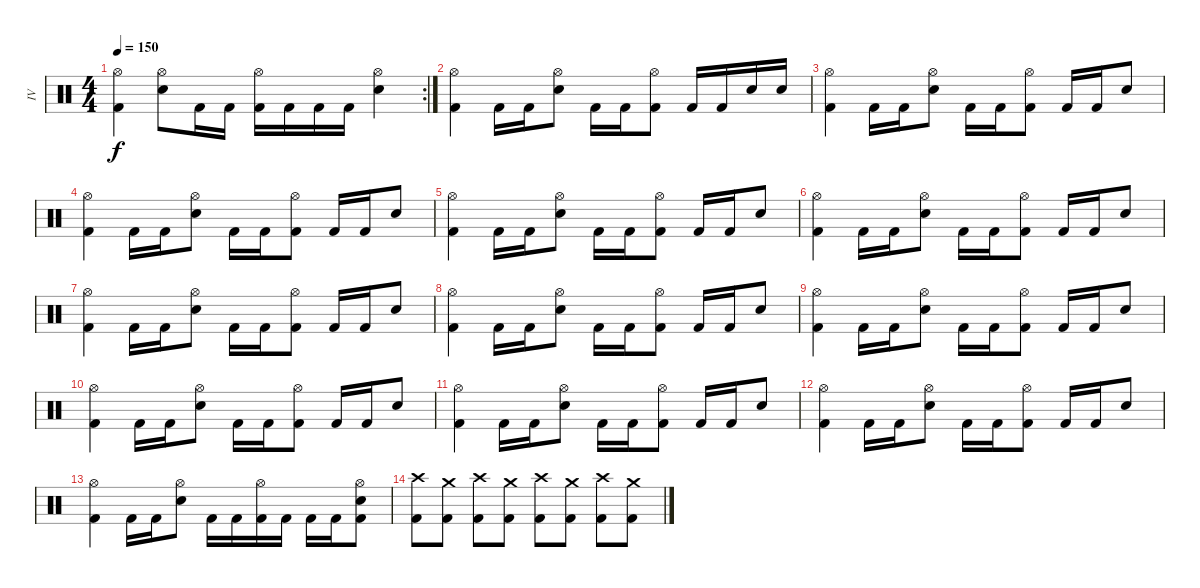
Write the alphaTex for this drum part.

\track ("IV" "IV") {instrument percussion}
\staff {score}
\articulation defaults
\rc 2
\ts (4 4)
\tempo 150
\clef neutral
\ks c
("Hi-Hat (open)" "Kick (hit) 2").4{dy f} ("Hi-Hat (open)" "Snare (hit) 2").8 "Kick (hit) 2".16 "Kick (hit) 2".16 ("Hi-Hat (open)" "Kick (hit) 2").16 "Kick (hit) 2".16 "Kick (hit) 2".16 "Kick (hit) 2".16 ("Hi-Hat (open)" "Snare (hit) 2").4 |
("Hi-Hat (open)" "Kick (hit) 2").4 "Kick (hit) 2".16 "Kick (hit) 2".16 ("Hi-Hat (open)" "Snare (hit) 2").8 "Kick (hit) 2".16 "Kick (hit) 2".16 ("Hi-Hat (open)" "Kick (hit) 2").8 "Kick (hit) 2".16 "Kick (hit) 2".16 "Snare (hit) 2".16 "Snare (hit) 2".16 |
("Hi-Hat (open)" "Kick (hit) 2").4 "Kick (hit) 2".16 "Kick (hit) 2".16 ("Hi-Hat (open)" "Snare (hit) 2").8 "Kick (hit) 2".16 "Kick (hit) 2".16 ("Hi-Hat (open)" "Kick (hit) 2").8 "Kick (hit) 2".16 "Kick (hit) 2".16 "Snare (hit) 2".8 |
("Hi-Hat (open)" "Kick (hit) 2").4 "Kick (hit) 2".16 "Kick (hit) 2".16 ("Hi-Hat (open)" "Snare (hit) 2").8 "Kick (hit) 2".16 "Kick (hit) 2".16 ("Hi-Hat (open)" "Kick (hit) 2").8 "Kick (hit) 2".16 "Kick (hit) 2".16 "Snare (hit) 2".8 |
("Hi-Hat (open)" "Kick (hit) 2").4 "Kick (hit) 2".16 "Kick (hit) 2".16 ("Hi-Hat (open)" "Snare (hit) 2").8 "Kick (hit) 2".16 "Kick (hit) 2".16 ("Hi-Hat (open)" "Kick (hit) 2").8 "Kick (hit) 2".16 "Kick (hit) 2".16 "Snare (hit) 2".8 |
("Hi-Hat (open)" "Kick (hit) 2").4 "Kick (hit) 2".16 "Kick (hit) 2".16 ("Hi-Hat (open)" "Snare (hit) 2").8 "Kick (hit) 2".16 "Kick (hit) 2".16 ("Hi-Hat (open)" "Kick (hit) 2").8 "Kick (hit) 2".16 "Kick (hit) 2".16 "Snare (hit) 2".8 |
("Hi-Hat (open)" "Kick (hit) 2").4 "Kick (hit) 2".16 "Kick (hit) 2".16 ("Hi-Hat (open)" "Snare (hit) 2").8 "Kick (hit) 2".16 "Kick (hit) 2".16 ("Hi-Hat (open)" "Kick (hit) 2").8 "Kick (hit) 2".16 "Kick (hit) 2".16 "Snare (hit) 2".8 |
("Hi-Hat (open)" "Kick (hit) 2").4 "Kick (hit) 2".16 "Kick (hit) 2".16 ("Hi-Hat (open)" "Snare (hit) 2").8 "Kick (hit) 2".16 "Kick (hit) 2".16 ("Hi-Hat (open)" "Kick (hit) 2").8 "Kick (hit) 2".16 "Kick (hit) 2".16 "Snare (hit) 2".8 |
("Hi-Hat (open)" "Kick (hit) 2").4 "Kick (hit) 2".16 "Kick (hit) 2".16 ("Hi-Hat (open)" "Snare (hit) 2").8 "Kick (hit) 2".16 "Kick (hit) 2".16 ("Hi-Hat (open)" "Kick (hit) 2").8 "Kick (hit) 2".16 "Kick (hit) 2".16 "Snare (hit) 2".8 |
("Hi-Hat (open)" "Kick (hit) 2").4 "Kick (hit) 2".16 "Kick (hit) 2".16 ("Hi-Hat (open)" "Snare (hit) 2").8 "Kick (hit) 2".16 "Kick (hit) 2".16 ("Hi-Hat (open)" "Kick (hit) 2").8 "Kick (hit) 2".16 "Kick (hit) 2".16 "Snare (hit) 2".8 |
("Hi-Hat (open)" "Kick (hit) 2").4 "Kick (hit) 2".16 "Kick (hit) 2".16 ("Hi-Hat (open)" "Snare (hit) 2").8 "Kick (hit) 2".16 "Kick (hit) 2".16 ("Hi-Hat (open)" "Kick (hit) 2").8 "Kick (hit) 2".16 "Kick (hit) 2".16 "Snare (hit) 2".8 |
("Hi-Hat (open)" "Kick (hit) 2").4 "Kick (hit) 2".16 "Kick (hit) 2".16 ("Hi-Hat (open)" "Snare (hit) 2").8 "Kick (hit) 2".16 "Kick (hit) 2".16 ("Hi-Hat (open)" "Kick (hit) 2").8 "Kick (hit) 2".16 "Kick (hit) 2".16 "Snare (hit) 2".8 |
("Hi-Hat (open)" "Kick (hit) 2").4 "Kick (hit) 2".16 "Kick (hit) 2".16 ("Hi-Hat (open)" "Snare (hit) 2").8 "Kick (hit) 2".16 "Kick (hit) 2".16 ("Hi-Hat (open)" "Kick (hit) 2").16 "Kick (hit) 2".16 "Kick (hit) 2".16 "Kick (hit) 2".16 ("Hi-Hat (open)" "Snare (hit) 2" "Kick (hit) 2").8 |
("Crash high (hit)" "Kick (hit) 2").8 ("Crash medium (hit)" "Kick (hit) 2").8 ("Crash high (hit)" "Kick (hit) 2").8 ("Crash medium (hit)" "Kick (hit) 2").8 ("Crash high (hit)" "Kick (hit) 2").8 ("Crash medium (hit)" "Kick (hit) 2").8 ("Crash high (hit)" "Kick (hit) 2").8 ("Crash medium (hit)" "Kick (hit) 2").8
